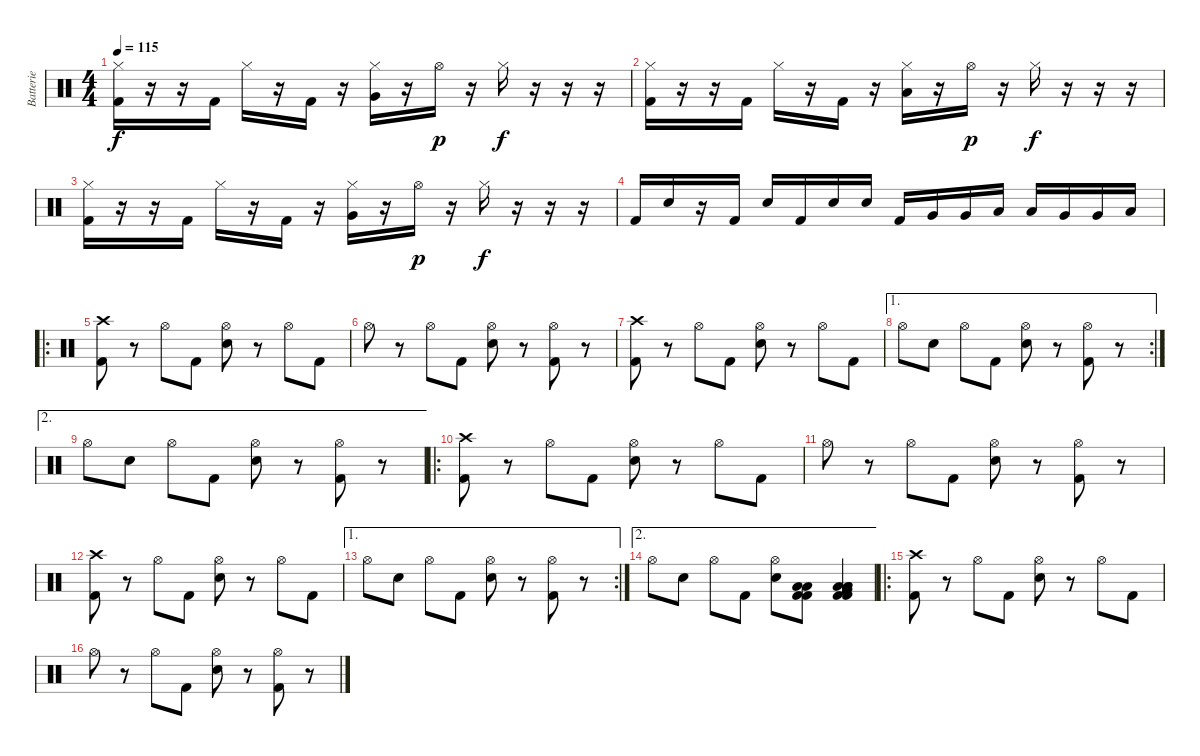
\track ("Batterie" "Batterie") {instrument percussion}
\staff {score}
\articulation defaults
\ts (4 4)
\tempo 115
\clef neutral
\ks c
("Hi-Hat (closed)" "Kick (hit) 2").16{dy f} r.16 r.16 "Kick (hit) 2".16 "Hi-Hat (closed)".16 r.16 "Kick (hit) 2".16 r.16 ("Hi-Hat (closed)" "Very Low Tom (hit)").16 r.16 "Hi-Hat (open)".16{dy p} r.16 "Hi-Hat (closed)".16{dy f} r.16 r.16 r.16 |
("Hi-Hat (closed)" "Kick (hit) 2").16 r.16 r.16 "Kick (hit) 2".16 "Hi-Hat (closed)".16 r.16 "Kick (hit) 2".16 r.16 ("Hi-Hat (closed)" "Low Floor Tom (hit)").16 r.16 "Hi-Hat (open)".16{dy p} r.16 "Hi-Hat (closed)".16{dy f} r.16 r.16 r.16 |
("Hi-Hat (closed)" "Kick (hit) 2").16 r.16 r.16 "Kick (hit) 2".16 "Hi-Hat (closed)".16 r.16 "Kick (hit) 2".16 r.16 ("Hi-Hat (closed)" "Very Low Tom (hit)").16 r.16 "Hi-Hat (open)".16{dy p} r.16 "Hi-Hat (closed)".16{dy f} r.16 r.16 r.16 |
"Kick (hit) 2".16 "Electric Snare (hit)".16 r.16 "Kick (hit) 2".16 "Electric Snare (hit)".16 "Kick (hit) 2".16 "Electric Snare (hit)".16 "Electric Snare (hit)".16 "Kick (hit) 2".16 "Very Low Tom (hit)".16 "Very Low Tom (hit)".16 "Low Floor Tom (hit)".16 "Low Floor Tom (hit)".16 "Very Low Tom (hit)".16 "Very Low Tom (hit)".16 "Low Floor Tom (hit)".16 |
\ro
("Crash high (hit)" "Kick (hit) 2").8 r.8 "Hi-Hat (open)".8 "Kick (hit) 2".8 ("Hi-Hat (open)" "Electric Snare (hit)").8 r.8 "Hi-Hat (open)".8 "Kick (hit) 2".8 |
"Hi-Hat (open)".8 r.8 "Hi-Hat (open)".8 "Kick (hit) 2".8 ("Hi-Hat (open)" "Electric Snare (hit)").8 r.8 ("Hi-Hat (open)" "Kick (hit) 2").8 r.8 |
("Crash high (hit)" "Kick (hit) 2").8 r.8 "Hi-Hat (open)".8 "Kick (hit) 2".8 ("Hi-Hat (open)" "Electric Snare (hit)").8 r.8 "Hi-Hat (open)".8 "Kick (hit) 2".8 |
\ae 1
\rc 2 "Hi-Hat (open)".8 "Electric Snare (hit)".8 "Hi-Hat (open)".8 "Kick (hit) 2".8
("Hi-Hat (open)" "Electric Snare (hit)").8 r.8 ("Hi-Hat (open)" "Kick (hit) 2").8 r.8 |
\ae 2 "Hi-Hat (open)".8 "Electric Snare (hit)".8 "Hi-Hat (open)".8 "Kick (hit) 2".8
("Hi-Hat (open)" "Electric Snare (hit)").8 r.8 ("Hi-Hat (open)" "Kick (hit) 2").8 r.8 |
\ro
("Crash high (hit)" "Kick (hit) 2").8 r.8 "Hi-Hat (open)".8 "Kick (hit) 2".8 ("Hi-Hat (open)" "Electric Snare (hit)").8 r.8 "Hi-Hat (open)".8 "Kick (hit) 2".8 |
"Hi-Hat (open)".8 r.8 "Hi-Hat (open)".8 "Kick (hit) 2".8 ("Hi-Hat (open)" "Electric Snare (hit)").8 r.8 ("Hi-Hat (open)" "Kick (hit) 2").8 r.8 |
("Crash high (hit)" "Kick (hit) 2").8 r.8 "Hi-Hat (open)".8 "Kick (hit) 2".8 ("Hi-Hat (open)" "Electric Snare (hit)").8 r.8 "Hi-Hat (open)".8 "Kick (hit) 2".8 |
\ae 1
\rc 2 "Hi-Hat (open)".8 "Electric Snare (hit)".8 "Hi-Hat (open)".8 "Kick (hit) 2".8
("Hi-Hat (open)" "Electric Snare (hit)").8 r.8 ("Hi-Hat (open)" "Kick (hit) 2").8 r.8 |
\ae 2 "Hi-Hat (open)".8 "Electric Snare (hit)".8 "Hi-Hat (open)".8 "Kick (hit) 2".8
("Hi-Hat (open)" "Electric Snare (hit)").8 ("Low Floor Tom (hit)" "Low Floor Tom (hit)" "Kick (hit) 2" "Kick (hit) 2").8 ("Very Low Tom (hit)" "Low Floor Tom (hit)" "Low Floor Tom (hit)" "Low Floor Tom (hit)" "Kick (hit) 2" "Kick (hit) 2").4 |
\ro
("Crash high (hit)" "Kick (hit) 2").8 r.8 "Hi-Hat (open)".8 "Kick (hit) 2".8 ("Hi-Hat (open)" "Electric Snare (hit)").8 r.8 "Hi-Hat (open)".8 "Kick (hit) 2".8 |
"Hi-Hat (open)".8 r.8 "Hi-Hat (open)".8 "Kick (hit) 2".8 ("Hi-Hat (open)" "Electric Snare (hit)").8 r.8 ("Hi-Hat (open)" "Kick (hit) 2").8 r.8
